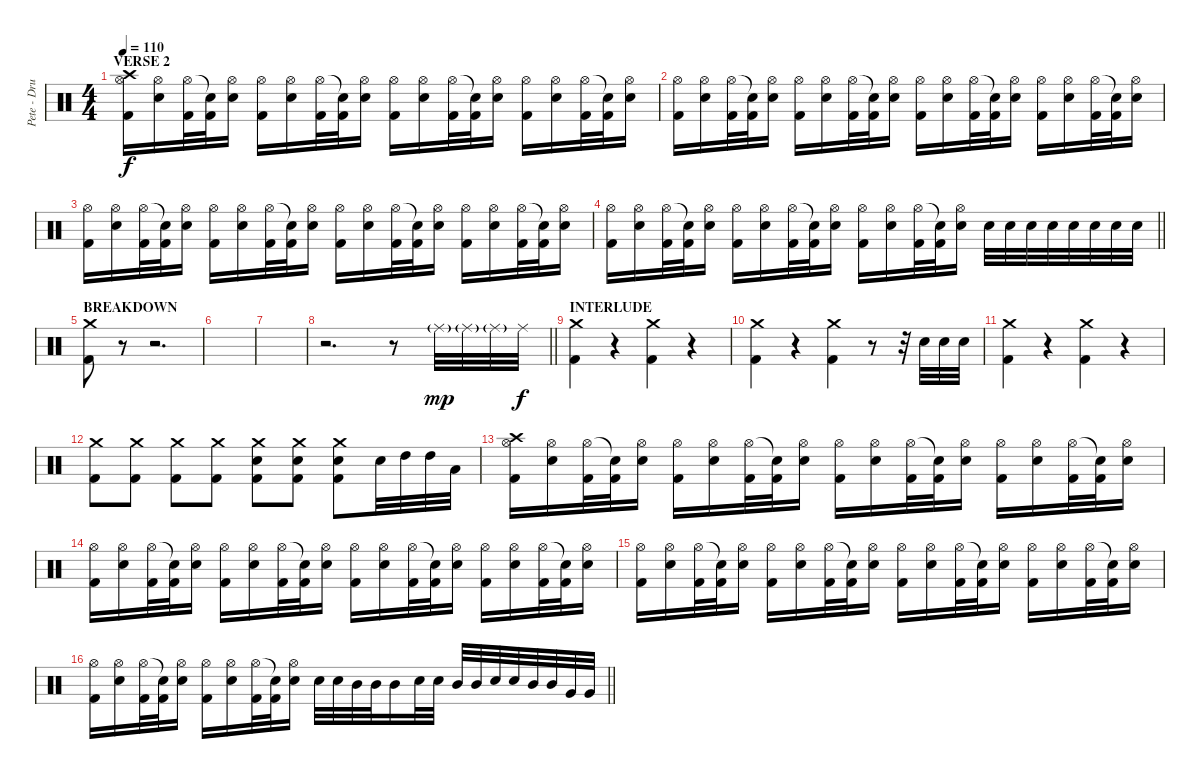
\track ("Pete - Drums" "Pete - Dru") {instrument percussion}
\staff {score}
\articulation defaults
\ts (4 4)
\section ("" "VERSE 2")
\tempo 110
\clef neutral
\ks c
("Crash high (hit)" "Hi-Hat (open)" "Kick (hit) 2").16{dy f} ("Hi-Hat (open)" "Electric Snare (hit)").16 ("Hi-Hat (open)" "Kick (hit) 2").32 ("Snare (hit)"{t} "Kick (hit) 2").32 ("Hi-Hat (open)" "Electric Snare (hit)").16 ("Hi-Hat (open)" "Kick (hit) 2").16 ("Hi-Hat (open)" "Electric Snare (hit)").16 ("Hi-Hat (open)" "Kick (hit) 2").32 ("Snare (hit)"{t} "Kick (hit) 2").32 ("Hi-Hat (open)" "Electric Snare (hit)").16 ("Hi-Hat (open)" "Kick (hit) 2").16 ("Hi-Hat (open)" "Electric Snare (hit)").16 ("Hi-Hat (open)" "Kick (hit) 2").32 ("Snare (hit)"{t} "Kick (hit) 2").32 ("Hi-Hat (open)" "Electric Snare (hit)").16 ("Hi-Hat (open)" "Kick (hit) 2").16 ("Hi-Hat (open)" "Electric Snare (hit)").16 ("Hi-Hat (open)" "Kick (hit) 2").32 ("Snare (hit)"{t} "Kick (hit) 2").32 ("Hi-Hat (open)" "Electric Snare (hit)").16 |
("Hi-Hat (open)" "Kick (hit) 2").16 ("Hi-Hat (open)" "Electric Snare (hit)").16 ("Hi-Hat (open)" "Kick (hit) 2").32 ("Snare (hit)"{t} "Kick (hit) 2").32 ("Hi-Hat (open)" "Electric Snare (hit)").16 ("Hi-Hat (open)" "Kick (hit) 2").16 ("Hi-Hat (open)" "Electric Snare (hit)").16 ("Hi-Hat (open)" "Kick (hit) 2").32 ("Snare (hit)"{t} "Kick (hit) 2").32 ("Hi-Hat (open)" "Electric Snare (hit)").16 ("Hi-Hat (open)" "Kick (hit) 2").16 ("Hi-Hat (open)" "Electric Snare (hit)").16 ("Hi-Hat (open)" "Kick (hit) 2").32 ("Snare (hit)"{t} "Kick (hit) 2").32 ("Hi-Hat (open)" "Electric Snare (hit)").16 ("Hi-Hat (open)" "Kick (hit) 2").16 ("Hi-Hat (open)" "Electric Snare (hit)").16 ("Hi-Hat (open)" "Kick (hit) 2").32 ("Snare (hit)"{t} "Kick (hit) 2").32 ("Hi-Hat (open)" "Electric Snare (hit)").16 |
("Hi-Hat (open)" "Kick (hit) 2").16 ("Hi-Hat (open)" "Electric Snare (hit)").16 ("Hi-Hat (open)" "Kick (hit) 2").32 ("Snare (hit)"{t} "Kick (hit) 2").32 ("Hi-Hat (open)" "Electric Snare (hit)").16 ("Hi-Hat (open)" "Kick (hit) 2").16 ("Hi-Hat (open)" "Electric Snare (hit)").16 ("Hi-Hat (open)" "Kick (hit) 2").32 ("Snare (hit)"{t} "Kick (hit) 2").32 ("Hi-Hat (open)" "Electric Snare (hit)").16 ("Hi-Hat (open)" "Kick (hit) 2").16 ("Hi-Hat (open)" "Electric Snare (hit)").16 ("Hi-Hat (open)" "Kick (hit) 2").32 ("Snare (hit)"{t} "Kick (hit) 2").32 ("Hi-Hat (open)" "Electric Snare (hit)").16 ("Hi-Hat (open)" "Kick (hit) 2").16 ("Hi-Hat (open)" "Electric Snare (hit)").16 ("Hi-Hat (open)" "Kick (hit) 2").32 ("Snare (hit)"{t} "Kick (hit) 2").32 ("Hi-Hat (open)" "Electric Snare (hit)").16 |
\barLineRight lightlight
("Hi-Hat (open)" "Kick (hit) 2").16 ("Hi-Hat (open)" "Electric Snare (hit)").16 ("Hi-Hat (open)" "Kick (hit) 2").32 ("Snare (hit)"{t} "Kick (hit) 2").32 ("Hi-Hat (open)" "Electric Snare (hit)").16 ("Hi-Hat (open)" "Kick (hit) 2").16 ("Hi-Hat (open)" "Electric Snare (hit)").16 ("Hi-Hat (open)" "Kick (hit) 2").32 ("Snare (hit)"{t} "Kick (hit) 2").32 ("Hi-Hat (open)" "Electric Snare (hit)").16 ("Hi-Hat (open)" "Kick (hit) 2").16 ("Hi-Hat (open)" "Electric Snare (hit)").16 ("Hi-Hat (open)" "Kick (hit) 2").32 ("Snare (hit)"{t} "Kick (hit) 2").32 ("Hi-Hat (open)" "Electric Snare (hit)").16 "Electric Snare (hit)".32 "Electric Snare (hit)".32 "Electric Snare (hit)".32 "Electric Snare (hit)".32 "Electric Snare (hit)".32 "Electric Snare (hit)".32 "Electric Snare (hit)".32 "Electric Snare (hit)".32 |
\section ("" "BREAKDOWN")
("Crash medium (hit)" "Kick (hit) 2").8 r.8 r.2{d} |
|
|
\barLineRight lightlight
r.2{d} r.8 "Ride (middle)"{g}.32{dy mp} "Ride (middle)"{g}.32 "Ride (middle)"{g}.32 "Ride (middle)".32{dy f} |
\section ("" "INTERLUDE")
("Crash medium (hit)" "Kick (hit) 2").4 r.4 ("Crash medium (hit)" "Kick (hit) 2").4 r.4 |
("Crash medium (hit)" "Kick (hit) 2").4 r.4 ("Crash medium (hit)" "Kick (hit) 2").4 r.8 r.32 "Electric Snare (hit)".32 "Electric Snare (hit)".32 "Electric Snare (hit)".32 |
("Crash medium (hit)" "Kick (hit) 2").4 r.4 ("Crash medium (hit)" "Kick (hit) 2").4 r.4 |
("Crash medium (hit)" "Kick (hit) 2").8 ("Crash medium (hit)" "Kick (hit) 2").8 ("Crash medium (hit)" "Kick (hit) 2").8 ("Crash medium (hit)" "Kick (hit) 2").8 ("Crash medium (hit)" "Electric Snare (hit)" "Kick (hit) 2").8 ("Crash medium (hit)" "Electric Snare (hit)" "Kick (hit) 2").8 ("Crash medium (hit)" "Electric Snare (hit)" "Kick (hit) 2").8 "Electric Snare (hit)".32 "High Tom (hit)".32 "High Tom (hit)".32 "Low Tom (hit)".32 |
("Crash high (hit)" "Hi-Hat (open)" "Kick (hit) 2").16 ("Hi-Hat (open)" "Electric Snare (hit)").16 ("Hi-Hat (open)" "Kick (hit) 2").32 ("Snare (hit)"{t} "Kick (hit) 2").32 ("Hi-Hat (open)" "Electric Snare (hit)").16 ("Hi-Hat (open)" "Kick (hit) 2").16 ("Hi-Hat (open)" "Electric Snare (hit)").16 ("Hi-Hat (open)" "Kick (hit) 2").32 ("Snare (hit)"{t} "Kick (hit) 2").32 ("Hi-Hat (open)" "Electric Snare (hit)").16 ("Hi-Hat (open)" "Kick (hit) 2").16 ("Hi-Hat (open)" "Electric Snare (hit)").16 ("Hi-Hat (open)" "Kick (hit) 2").32 ("Snare (hit)"{t} "Kick (hit) 2").32 ("Hi-Hat (open)" "Electric Snare (hit)").16 ("Hi-Hat (open)" "Kick (hit) 2").16 ("Hi-Hat (open)" "Electric Snare (hit)").16 ("Hi-Hat (open)" "Kick (hit) 2").32 ("Snare (hit)"{t} "Kick (hit) 2").32 ("Hi-Hat (open)" "Electric Snare (hit)").16 |
("Hi-Hat (open)" "Kick (hit) 2").16 ("Hi-Hat (open)" "Electric Snare (hit)").16 ("Hi-Hat (open)" "Kick (hit) 2").32 ("Snare (hit)"{t} "Kick (hit) 2").32 ("Hi-Hat (open)" "Electric Snare (hit)").16 ("Hi-Hat (open)" "Kick (hit) 2").16 ("Hi-Hat (open)" "Electric Snare (hit)").16 ("Hi-Hat (open)" "Kick (hit) 2").32 ("Snare (hit)"{t} "Kick (hit) 2").32 ("Hi-Hat (open)" "Electric Snare (hit)").16 ("Hi-Hat (open)" "Kick (hit) 2").16 ("Hi-Hat (open)" "Electric Snare (hit)").16 ("Hi-Hat (open)" "Kick (hit) 2").32 ("Snare (hit)"{t} "Kick (hit) 2").32 ("Hi-Hat (open)" "Electric Snare (hit)").16 ("Hi-Hat (open)" "Kick (hit) 2").16 ("Hi-Hat (open)" "Electric Snare (hit)").16 ("Hi-Hat (open)" "Kick (hit) 2").32 ("Snare (hit)"{t} "Kick (hit) 2").32 ("Hi-Hat (open)" "Electric Snare (hit)").16 |
("Hi-Hat (open)" "Kick (hit) 2").16 ("Hi-Hat (open)" "Electric Snare (hit)").16 ("Hi-Hat (open)" "Kick (hit) 2").32 ("Snare (hit)"{t} "Kick (hit) 2").32 ("Hi-Hat (open)" "Electric Snare (hit)").16 ("Hi-Hat (open)" "Kick (hit) 2").16 ("Hi-Hat (open)" "Electric Snare (hit)").16 ("Hi-Hat (open)" "Kick (hit) 2").32 ("Snare (hit)"{t} "Kick (hit) 2").32 ("Hi-Hat (open)" "Electric Snare (hit)").16 ("Hi-Hat (open)" "Kick (hit) 2").16 ("Hi-Hat (open)" "Electric Snare (hit)").16 ("Hi-Hat (open)" "Kick (hit) 2").32 ("Snare (hit)"{t} "Kick (hit) 2").32 ("Hi-Hat (open)" "Electric Snare (hit)").16 ("Hi-Hat (open)" "Kick (hit) 2").16 ("Hi-Hat (open)" "Electric Snare (hit)").16 ("Hi-Hat (open)" "Kick (hit) 2").32 ("Snare (hit)"{t} "Kick (hit) 2").32 ("Hi-Hat (open)" "Electric Snare (hit)").16 |
\barLineRight lightlight
("Hi-Hat (open)" "Kick (hit) 2").16 ("Hi-Hat (open)" "Electric Snare (hit)").16 ("Hi-Hat (open)" "Kick (hit) 2").32 ("Snare (hit)"{t} "Kick (hit) 2").32 ("Hi-Hat (open)" "Electric Snare (hit)").16 ("Hi-Hat (open)" "Kick (hit) 2").16 ("Hi-Hat (open)" "Electric Snare (hit)").16 ("Hi-Hat (open)" "Kick (hit) 2").32 ("Snare (hit)"{t} "Kick (hit) 2").32 ("Hi-Hat (open)" "Electric Snare (hit)").16 "Electric Snare (hit)".32 "Electric Snare (hit)".32 "Mid Tom (hit)".32 "Mid Tom (hit)".32 "Mid Tom (hit)".16 "Electric Snare (hit)".32 "Electric Snare (hit)".32 "Mid Tom (hit)".32 "Mid Tom (hit)".32 "Electric Snare (hit)".32 "Electric Snare (hit)".32 "Mid Tom (hit)".32 "Mid Tom (hit)".32 "Very Low Tom (hit)".32 "Very Low Tom (hit)".32
